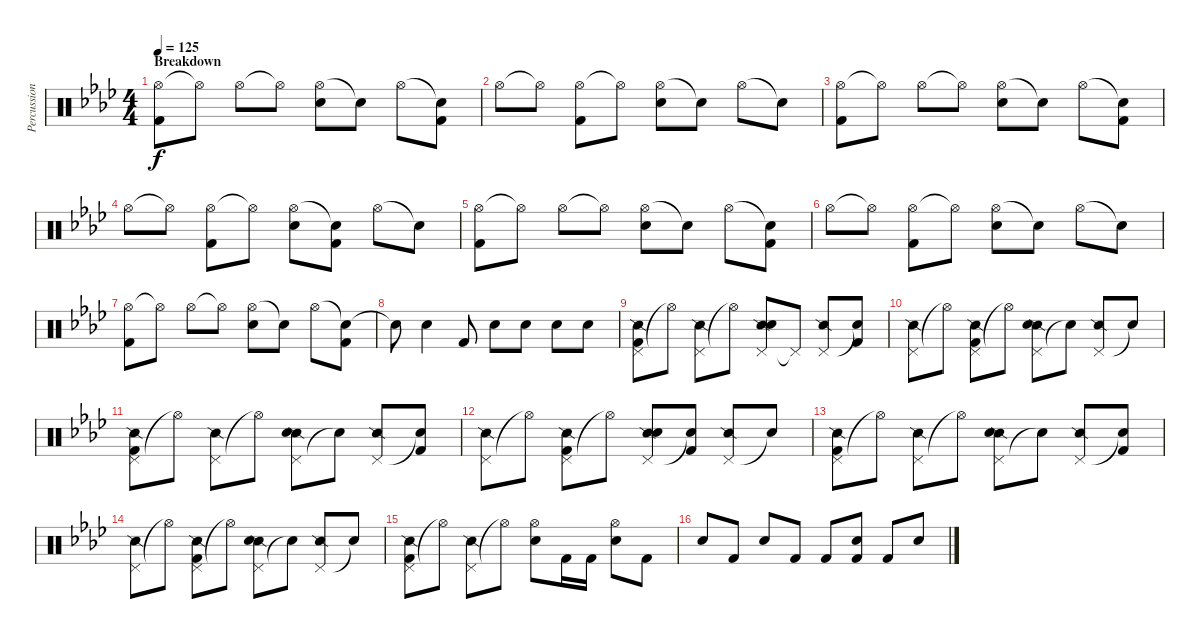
\track ("Percussion" "Percussion") {instrument percussion}
\staff {score}
\articulation defaults
\ts (4 4)
\section ("" "Breakdown")
\tempo 125
\clef neutral
\ks fminor
("Hi-Hat (open)" "Kick (hit) 2").8{dy f} "Hi-Hat (open)"{t}.8 "Hi-Hat (open)".8 "Hi-Hat (open)"{t}.8 ("Hi-Hat (open)" "Snare (hit) 2").8 "Snare (hit)"{t}.8 "Hi-Hat (open)".8 ("Snare (hit)"{t} "Kick (hit) 2").8 |
"Hi-Hat (open)".8 "Hi-Hat (open)"{t}.8 ("Hi-Hat (open)" "Kick (hit) 2").8 "Hi-Hat (open)"{t}.8 ("Hi-Hat (open)" "Snare (hit) 2").8 "Snare (hit)"{t}.8 "Hi-Hat (open)".8 "Snare (hit)"{t}.8 |
("Hi-Hat (open)" "Kick (hit) 2").8 "Hi-Hat (open)"{t}.8 "Hi-Hat (open)".8 "Hi-Hat (open)"{t}.8 ("Hi-Hat (open)" "Snare (hit) 2").8 "Snare (hit)"{t}.8 "Hi-Hat (open)".8 ("Snare (hit)"{t} "Kick (hit) 2").8 |
"Hi-Hat (open)".8 "Hi-Hat (open)"{t}.8 ("Hi-Hat (open)" "Kick (hit) 2").8 "Hi-Hat (open)"{t}.8 ("Hi-Hat (open)" "Snare (hit) 2").8 ("Snare (hit)"{t} "Kick (hit) 2").8 "Hi-Hat (open)".8 "Snare (hit)"{t}.8 |
("Hi-Hat (open)" "Kick (hit) 2").8 "Hi-Hat (open)"{t}.8 "Hi-Hat (open)".8 "Hi-Hat (open)"{t}.8 ("Hi-Hat (open)" "Snare (hit) 2").8 "Snare (hit)"{t}.8 "Hi-Hat (open)".8 ("Snare (hit)"{t} "Kick (hit) 2").8 |
"Hi-Hat (open)".8 "Hi-Hat (open)"{t}.8 ("Hi-Hat (open)" "Kick (hit) 2").8 "Hi-Hat (open)"{t}.8 ("Hi-Hat (open)" "Snare (hit) 2").8 "Snare (hit)"{t}.8 "Hi-Hat (open)".8 "Snare (hit)"{t}.8 |
("Hi-Hat (open)" "Kick (hit) 2").8 "Hi-Hat (open)"{t}.8 "Hi-Hat (open)".8 "Hi-Hat (open)"{t}.8 ("Hi-Hat (open)" "Snare (hit) 2").8 "Snare (hit)"{t}.8 "Hi-Hat (open)".8 ("Snare (hit)"{t} "Kick (hit) 2").8 |
"Snare (hit)"{t}.8 "Snare (hit) 2".4 "Kick (hit) 2".8 "Snare (hit) 2".8 "Snare (hit) 2".8 "Snare (hit) 2".8 "Snare (hit) 2".8 |
("Pedal Hi-Hat (hit)" "Snare (side stick) 2" "Kick (hit) 2").8 "Hi-Hat (open)"{t}.8 ("Pedal Hi-Hat (hit)" "Snare (side stick) 2").8 "Hi-Hat (open)"{t}.8 ("Pedal Hi-Hat (hit)" "Snare (side stick) 2" "Snare (hit) 2").8 "Pedal Hi-Hat (hit)"{t}.8 ("Pedal Hi-Hat (hit)" "Snare (side stick) 2").8 ("Snare (hit)"{t} "Kick (hit) 2").8 |
("Pedal Hi-Hat (hit)" "Snare (side stick) 2").8 "Hi-Hat (open)"{t}.8 ("Pedal Hi-Hat (hit)" "Snare (side stick) 2" "Kick (hit) 2").8 "Hi-Hat (open)"{t}.8 ("Pedal Hi-Hat (hit)" "Snare (side stick) 2" "Snare (hit) 2").8 "Snare (hit)"{t}.8 ("Pedal Hi-Hat (hit)" "Snare (side stick) 2").8 "Snare (hit)"{t}.8 |
("Pedal Hi-Hat (hit)" "Snare (side stick) 2" "Kick (hit) 2").8 "Hi-Hat (open)"{t}.8 ("Pedal Hi-Hat (hit)" "Snare (side stick) 2").8 "Hi-Hat (open)"{t}.8 ("Pedal Hi-Hat (hit)" "Snare (side stick) 2" "Snare (hit) 2").8 "Snare (hit)"{t}.8 ("Pedal Hi-Hat (hit)" "Snare (side stick) 2").8 ("Snare (hit)"{t} "Kick (hit) 2").8 |
("Pedal Hi-Hat (hit)" "Snare (side stick) 2").8 "Hi-Hat (open)"{t}.8 ("Pedal Hi-Hat (hit)" "Snare (side stick) 2" "Kick (hit) 2").8 "Hi-Hat (open)"{t}.8 ("Pedal Hi-Hat (hit)" "Snare (side stick) 2" "Snare (hit) 2").8 ("Snare (hit)"{t} "Kick (hit) 2").8 ("Pedal Hi-Hat (hit)" "Snare (side stick) 2").8 "Snare (hit)"{t}.8 |
("Pedal Hi-Hat (hit)" "Snare (side stick) 2" "Kick (hit) 2").8 "Hi-Hat (open)"{t}.8 ("Pedal Hi-Hat (hit)" "Snare (side stick) 2").8 "Hi-Hat (open)"{t}.8 ("Pedal Hi-Hat (hit)" "Snare (side stick) 2" "Snare (hit) 2").8 "Snare (hit)"{t}.8 ("Pedal Hi-Hat (hit)" "Snare (side stick) 2").8 ("Snare (hit)"{t} "Kick (hit) 2").8 |
("Pedal Hi-Hat (hit)" "Snare (side stick) 2").8 "Hi-Hat (open)"{t}.8 ("Pedal Hi-Hat (hit)" "Snare (side stick) 2" "Kick (hit) 2").8 "Hi-Hat (open)"{t}.8 ("Pedal Hi-Hat (hit)" "Snare (side stick) 2" "Snare (hit) 2").8 "Snare (hit)"{t}.8 ("Pedal Hi-Hat (hit)" "Snare (side stick) 2").8 "Snare (hit)"{t}.8 |
("Pedal Hi-Hat (hit)" "Snare (side stick) 2" "Kick (hit) 2").8 "Hi-Hat (open)"{t}.8 ("Pedal Hi-Hat (hit)" "Snare (side stick) 2").8 "Hi-Hat (open)"{t}.8 ("Hi-Hat (open)" "Snare (hit) 2").8 "Kick (hit) 2".16 "Kick (hit) 2".16 ("Hi-Hat (open)" "Snare (hit) 2").8 "Kick (hit) 2".8 |
"Snare (hit) 2".8 "Kick (hit) 2".8 "Snare (hit) 2".8 "Kick (hit) 2".8 "Kick (hit) 2".8 ("Snare (hit) 2" "Kick (hit) 2").8 "Kick (hit) 2".8 "Snare (hit) 2".8
